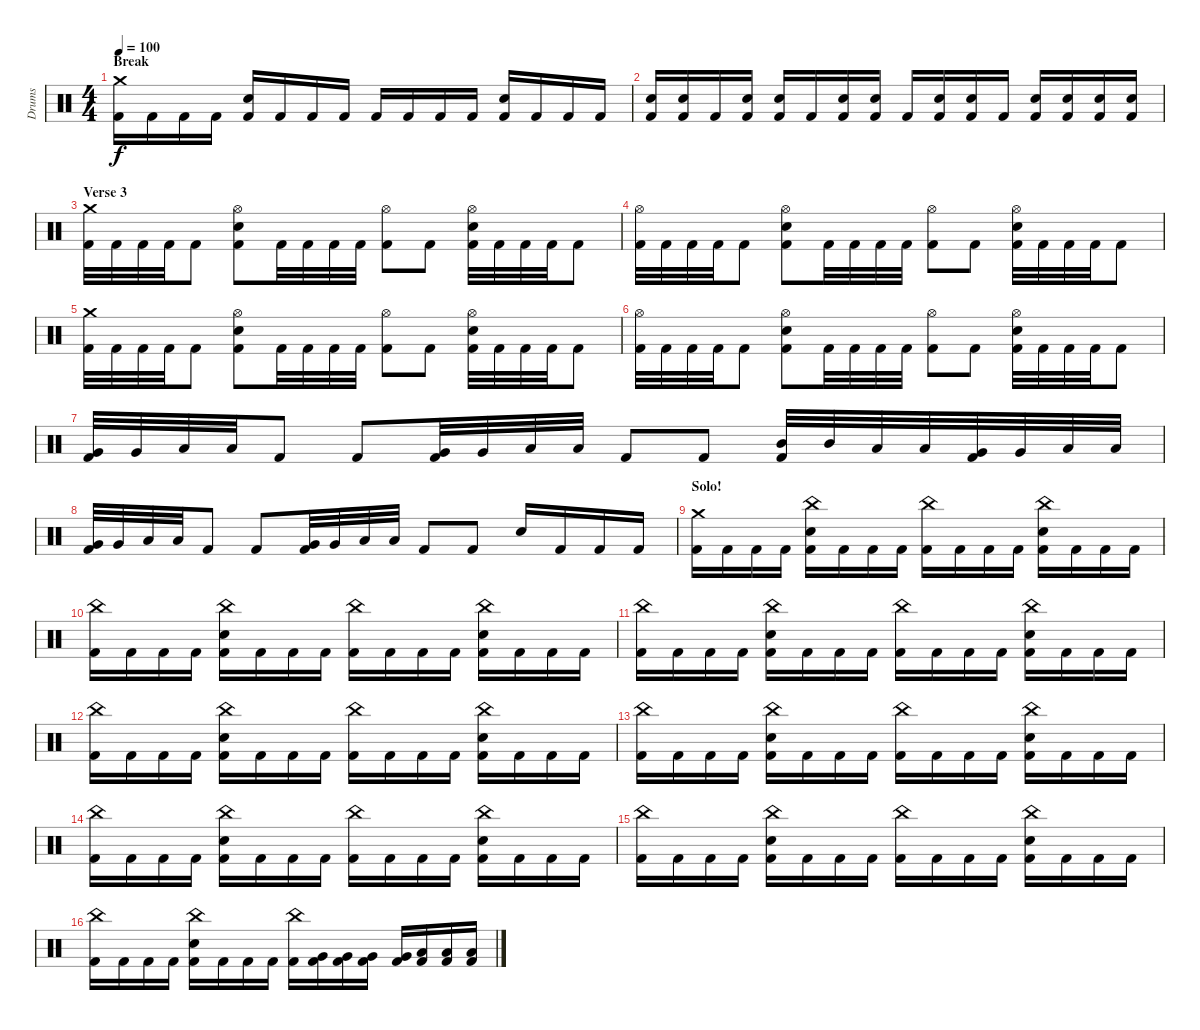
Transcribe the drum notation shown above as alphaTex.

\track ("Drums" "Drums") {instrument percussion}
\staff {score}
\articulation defaults
\ts (4 4)
\section ("" "Break")
\tempo 100
\clef neutral
\ks c
("Crash medium (hit)" "Kick (hit) 2").16{dy f} "Kick (hit) 2".16 "Kick (hit) 2".16 "Kick (hit) 2".16 ("Snare (hit) 2" "Kick (hit) 2").16 "Kick (hit) 2".16 "Kick (hit) 2".16 "Kick (hit) 2".16 "Kick (hit) 2".16 "Kick (hit) 2".16 "Kick (hit) 2".16 "Kick (hit) 2".16 ("Snare (hit) 2" "Kick (hit) 2").16 "Kick (hit) 2".16 "Kick (hit) 2".16 "Kick (hit) 2".16 |
("Snare (hit) 2" "Kick (hit) 2").16 ("Snare (hit) 2" "Kick (hit) 2").16 "Kick (hit) 2".16 ("Snare (hit) 2" "Kick (hit) 2").16 ("Snare (hit) 2" "Kick (hit) 2").16 "Kick (hit) 2".16 ("Snare (hit) 2" "Kick (hit) 2").16 ("Snare (hit) 2" "Kick (hit) 2").16 "Kick (hit) 2".16 ("Snare (hit) 2" "Kick (hit) 2").16 ("Snare (hit) 2" "Kick (hit) 2").16 "Kick (hit) 2".16 ("Snare (hit) 2" "Kick (hit) 2").16 ("Snare (hit) 2" "Kick (hit) 2").16 ("Snare (hit) 2" "Kick (hit) 2").16 ("Snare (hit) 2" "Kick (hit) 2").16 |
\section ("" "Verse 3")
("Crash medium (hit)" "Kick (hit) 2").32 "Kick (hit) 2".32 "Kick (hit) 2".32 "Kick (hit) 2".32 "Kick (hit) 2".8 ("Hi-Hat (open)" "Snare (hit) 2" "Kick (hit) 2").8 "Kick (hit) 2".32 "Kick (hit) 2".32 "Kick (hit) 2".32 "Kick (hit) 2".32 ("Hi-Hat (open)" "Kick (hit) 2").8 "Kick (hit) 2".8 ("Hi-Hat (open)" "Snare (hit) 2" "Kick (hit) 2").32 "Kick (hit) 2".32 "Kick (hit) 2".32 "Kick (hit) 2".32 "Kick (hit) 2".8 |
("Hi-Hat (open)" "Kick (hit) 2").32 "Kick (hit) 2".32 "Kick (hit) 2".32 "Kick (hit) 2".32 "Kick (hit) 2".8 ("Hi-Hat (open)" "Snare (hit) 2" "Kick (hit) 2").8 "Kick (hit) 2".32 "Kick (hit) 2".32 "Kick (hit) 2".32 "Kick (hit) 2".32 ("Hi-Hat (open)" "Kick (hit) 2").8 "Kick (hit) 2".8 ("Hi-Hat (open)" "Snare (hit) 2" "Kick (hit) 2").32 "Kick (hit) 2".32 "Kick (hit) 2".32 "Kick (hit) 2".32 "Kick (hit) 2".8 |
("Crash medium (hit)" "Kick (hit) 2").32 "Kick (hit) 2".32 "Kick (hit) 2".32 "Kick (hit) 2".32 "Kick (hit) 2".8 ("Hi-Hat (open)" "Snare (hit) 2" "Kick (hit) 2").8 "Kick (hit) 2".32 "Kick (hit) 2".32 "Kick (hit) 2".32 "Kick (hit) 2".32 ("Hi-Hat (open)" "Kick (hit) 2").8 "Kick (hit) 2".8 ("Hi-Hat (open)" "Snare (hit) 2" "Kick (hit) 2").32 "Kick (hit) 2".32 "Kick (hit) 2".32 "Kick (hit) 2".32 "Kick (hit) 2".8 |
("Hi-Hat (open)" "Kick (hit) 2").32 "Kick (hit) 2".32 "Kick (hit) 2".32 "Kick (hit) 2".32 "Kick (hit) 2".8 ("Hi-Hat (open)" "Snare (hit) 2" "Kick (hit) 2").8 "Kick (hit) 2".32 "Kick (hit) 2".32 "Kick (hit) 2".32 "Kick (hit) 2".32 ("Hi-Hat (open)" "Kick (hit) 2").8 "Kick (hit) 2".8 ("Hi-Hat (open)" "Snare (hit) 2" "Kick (hit) 2").32 "Kick (hit) 2".32 "Kick (hit) 2".32 "Kick (hit) 2".32 "Kick (hit) 2".8 |
("Very Low Tom (hit)" "Kick (hit) 2").32 "Very Low Tom (hit)".32 "Low Floor Tom (hit)".32 "Low Floor Tom (hit)".32 "Kick (hit) 2".8 "Kick (hit) 2".8 ("Very Low Tom (hit)" "Kick (hit) 2").32 "Very Low Tom (hit)".32 "Low Floor Tom (hit)".32 "Low Floor Tom (hit)".32 "Kick (hit) 2".8 "Kick (hit) 2".8 ("Mid Tom (hit)" "Kick (hit) 2").32 "Mid Tom (hit)".32 "Low Tom (hit)".32 "Low Tom (hit)".32 ("Very Low Tom (hit)" "Kick (hit) 2").32 "Very Low Tom (hit)".32 "Low Floor Tom (hit)".32 "Low Floor Tom (hit)".32 |
("Very Low Tom (hit)" "Kick (hit) 2").32 "Very Low Tom (hit)".32 "Low Floor Tom (hit)".32 "Low Floor Tom (hit)".32 "Kick (hit) 2".8 "Kick (hit) 2".8 ("Very Low Tom (hit)" "Kick (hit) 2").32 "Very Low Tom (hit)".32 "Low Floor Tom (hit)".32 "Low Floor Tom (hit)".32 "Kick (hit) 2".8 "Kick (hit) 2".8 "Snare (hit) 2".16 "Kick (hit) 2".16 "Kick (hit) 2".16 "Kick (hit) 2".16 |
\section ("" "Solo!")
("Crash medium (hit)" "Kick (hit) 2").16 "Kick (hit) 2".16 "Kick (hit) 2".16 "Kick (hit) 2".16 ("China (hit)" "Snare (hit) 2" "Kick (hit) 2").16 "Kick (hit) 2".16 "Kick (hit) 2".16 "Kick (hit) 2".16 ("China (hit)" "Kick (hit) 2").16 "Kick (hit) 2".16 "Kick (hit) 2".16 "Kick (hit) 2".16 ("China (hit)" "Snare (hit) 2" "Kick (hit) 2").16 "Kick (hit) 2".16 "Kick (hit) 2".16 "Kick (hit) 2".16 |
("China (hit)" "Kick (hit) 2").16 "Kick (hit) 2".16 "Kick (hit) 2".16 "Kick (hit) 2".16 ("China (hit)" "Snare (hit) 2" "Kick (hit) 2").16 "Kick (hit) 2".16 "Kick (hit) 2".16 "Kick (hit) 2".16 ("China (hit)" "Kick (hit) 2").16 "Kick (hit) 2".16 "Kick (hit) 2".16 "Kick (hit) 2".16 ("China (hit)" "Snare (hit) 2" "Kick (hit) 2").16 "Kick (hit) 2".16 "Kick (hit) 2".16 "Kick (hit) 2".16 |
("China (hit)" "Kick (hit) 2").16 "Kick (hit) 2".16 "Kick (hit) 2".16 "Kick (hit) 2".16 ("China (hit)" "Snare (hit) 2" "Kick (hit) 2").16 "Kick (hit) 2".16 "Kick (hit) 2".16 "Kick (hit) 2".16 ("China (hit)" "Kick (hit) 2").16 "Kick (hit) 2".16 "Kick (hit) 2".16 "Kick (hit) 2".16 ("China (hit)" "Snare (hit) 2" "Kick (hit) 2").16 "Kick (hit) 2".16 "Kick (hit) 2".16 "Kick (hit) 2".16 |
("China (hit)" "Kick (hit) 2").16 "Kick (hit) 2".16 "Kick (hit) 2".16 "Kick (hit) 2".16 ("China (hit)" "Snare (hit) 2" "Kick (hit) 2").16 "Kick (hit) 2".16 "Kick (hit) 2".16 "Kick (hit) 2".16 ("China (hit)" "Kick (hit) 2").16 "Kick (hit) 2".16 "Kick (hit) 2".16 "Kick (hit) 2".16 ("China (hit)" "Snare (hit) 2" "Kick (hit) 2").16 "Kick (hit) 2".16 "Kick (hit) 2".16 "Kick (hit) 2".16 |
("China (hit)" "Kick (hit) 2").16 "Kick (hit) 2".16 "Kick (hit) 2".16 "Kick (hit) 2".16 ("China (hit)" "Snare (hit) 2" "Kick (hit) 2").16 "Kick (hit) 2".16 "Kick (hit) 2".16 "Kick (hit) 2".16 ("China (hit)" "Kick (hit) 2").16 "Kick (hit) 2".16 "Kick (hit) 2".16 "Kick (hit) 2".16 ("China (hit)" "Snare (hit) 2" "Kick (hit) 2").16 "Kick (hit) 2".16 "Kick (hit) 2".16 "Kick (hit) 2".16 |
("China (hit)" "Kick (hit) 2").16 "Kick (hit) 2".16 "Kick (hit) 2".16 "Kick (hit) 2".16 ("China (hit)" "Snare (hit) 2" "Kick (hit) 2").16 "Kick (hit) 2".16 "Kick (hit) 2".16 "Kick (hit) 2".16 ("China (hit)" "Kick (hit) 2").16 "Kick (hit) 2".16 "Kick (hit) 2".16 "Kick (hit) 2".16 ("China (hit)" "Snare (hit) 2" "Kick (hit) 2").16 "Kick (hit) 2".16 "Kick (hit) 2".16 "Kick (hit) 2".16 |
("China (hit)" "Kick (hit) 2").16 "Kick (hit) 2".16 "Kick (hit) 2".16 "Kick (hit) 2".16 ("China (hit)" "Snare (hit) 2" "Kick (hit) 2").16 "Kick (hit) 2".16 "Kick (hit) 2".16 "Kick (hit) 2".16 ("China (hit)" "Kick (hit) 2").16 "Kick (hit) 2".16 "Kick (hit) 2".16 "Kick (hit) 2".16 ("China (hit)" "Snare (hit) 2" "Kick (hit) 2").16 "Kick (hit) 2".16 "Kick (hit) 2".16 "Kick (hit) 2".16 |
("China (hit)" "Kick (hit) 2").16 "Kick (hit) 2".16 "Kick (hit) 2".16 "Kick (hit) 2".16 ("China (hit)" "Snare (hit) 2" "Kick (hit) 2").16 "Kick (hit) 2".16 "Kick (hit) 2".16 "Kick (hit) 2".16 ("China (hit)" "Kick (hit) 2").16 ("Very Low Tom (hit)" "Kick (hit) 2").16 ("Very Low Tom (hit)" "Kick (hit) 2").16 ("Very Low Tom (hit)" "Kick (hit) 2").16 ("Very Low Tom (hit)" "Kick (hit) 2").16 ("Low Floor Tom (hit)" "Kick (hit) 2").16 ("Low Floor Tom (hit)" "Kick (hit) 2").16 ("Low Floor Tom (hit)" "Kick (hit) 2").16
